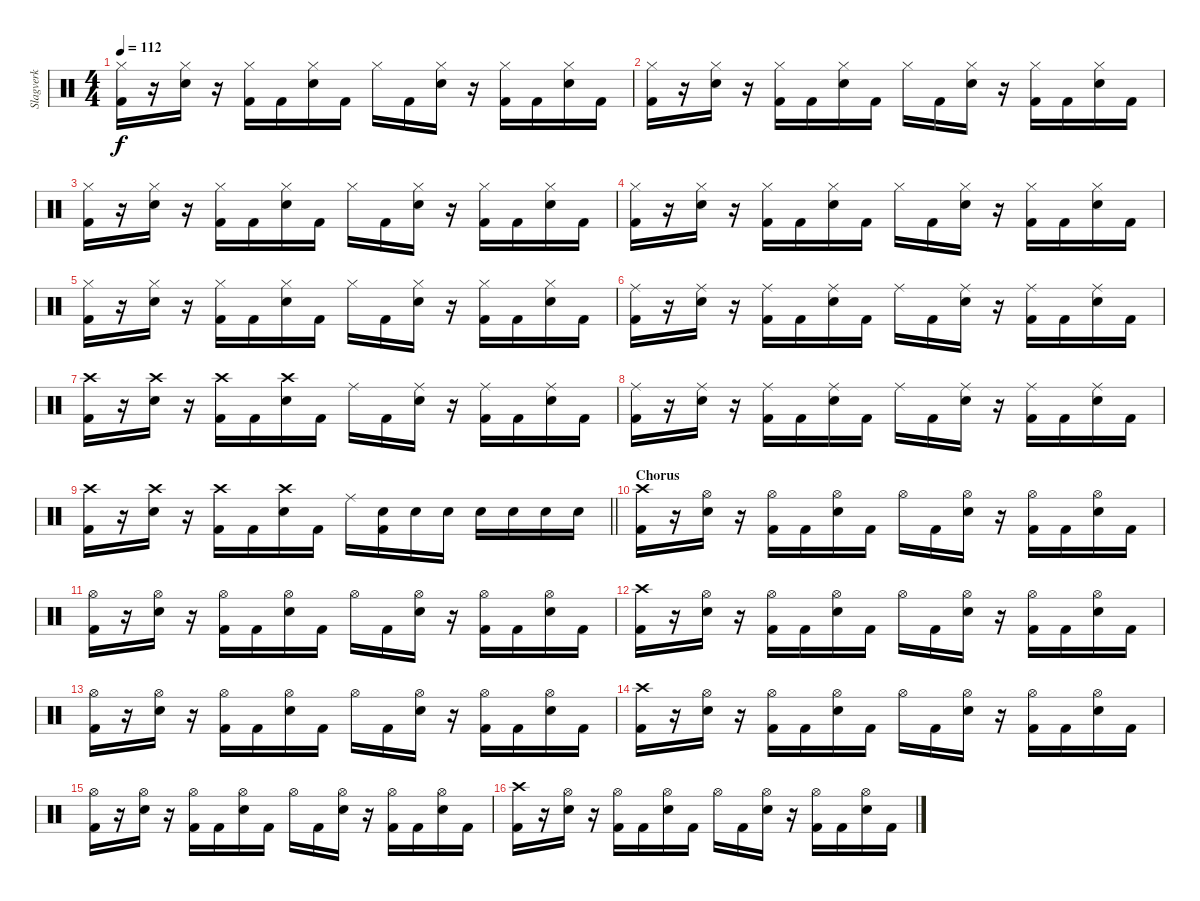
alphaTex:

\track ("Slagverk" "Slagverk") {instrument percussion}
\staff {score}
\articulation defaults
\ts (4 4)
\tempo 112
\clef neutral
\ks c
("Hi-Hat (closed)" "Kick (hit) 2").16{dy f} r.16 ("Hi-Hat (closed)" "Snare (hit) 2").16 r.16 ("Hi-Hat (closed)" "Kick (hit) 2").16 "Kick (hit) 2".16 ("Hi-Hat (closed)" "Snare (hit) 2").16 "Kick (hit) 2".16 "Hi-Hat (closed)".16 "Kick (hit) 2".16 ("Hi-Hat (closed)" "Snare (hit) 2").16 r.16 ("Hi-Hat (closed)" "Kick (hit) 2").16 "Kick (hit) 2".16 ("Hi-Hat (closed)" "Snare (hit) 2").16 "Kick (hit) 2".16 |
("Hi-Hat (closed)" "Kick (hit) 2").16 r.16 ("Hi-Hat (closed)" "Snare (hit) 2").16 r.16 ("Hi-Hat (closed)" "Kick (hit) 2").16 "Kick (hit) 2".16 ("Hi-Hat (closed)" "Snare (hit) 2").16 "Kick (hit) 2".16 "Hi-Hat (closed)".16 "Kick (hit) 2".16 ("Hi-Hat (closed)" "Snare (hit) 2").16 r.16 ("Hi-Hat (closed)" "Kick (hit) 2").16 "Kick (hit) 2".16 ("Hi-Hat (closed)" "Snare (hit) 2").16 "Kick (hit) 2".16 |
("Hi-Hat (closed)" "Kick (hit) 2").16 r.16 ("Hi-Hat (closed)" "Snare (hit) 2").16 r.16 ("Hi-Hat (closed)" "Kick (hit) 2").16 "Kick (hit) 2".16 ("Hi-Hat (closed)" "Snare (hit) 2").16 "Kick (hit) 2".16 "Hi-Hat (closed)".16 "Kick (hit) 2".16 ("Hi-Hat (closed)" "Snare (hit) 2").16 r.16 ("Hi-Hat (closed)" "Kick (hit) 2").16 "Kick (hit) 2".16 ("Hi-Hat (closed)" "Snare (hit) 2").16 "Kick (hit) 2".16 |
("Hi-Hat (closed)" "Kick (hit) 2").16 r.16 ("Hi-Hat (closed)" "Snare (hit) 2").16 r.16 ("Hi-Hat (closed)" "Kick (hit) 2").16 "Kick (hit) 2".16 ("Hi-Hat (closed)" "Snare (hit) 2").16 "Kick (hit) 2".16 "Hi-Hat (closed)".16 "Kick (hit) 2".16 ("Hi-Hat (closed)" "Snare (hit) 2").16 r.16 ("Hi-Hat (closed)" "Kick (hit) 2").16 "Kick (hit) 2".16 ("Hi-Hat (closed)" "Snare (hit) 2").16 "Kick (hit) 2".16 |
("Hi-Hat (closed)" "Kick (hit) 2").16 r.16 ("Hi-Hat (closed)" "Snare (hit) 2").16 r.16 ("Hi-Hat (closed)" "Kick (hit) 2").16 "Kick (hit) 2".16 ("Hi-Hat (closed)" "Snare (hit) 2").16 "Kick (hit) 2".16 "Hi-Hat (closed)".16 "Kick (hit) 2".16 ("Hi-Hat (closed)" "Snare (hit) 2").16 r.16 ("Hi-Hat (closed)" "Kick (hit) 2").16 "Kick (hit) 2".16 ("Hi-Hat (closed)" "Snare (hit) 2").16 "Kick (hit) 2".16 |
("Ride (middle)" "Kick (hit) 2").16 r.16 ("Ride (middle)" "Snare (hit) 2").16 r.16 ("Ride (middle)" "Kick (hit) 2").16 "Kick (hit) 2".16 ("Ride (middle)" "Snare (hit) 2").16 "Kick (hit) 2".16 "Ride (middle)".16 "Kick (hit) 2".16 ("Ride (middle)" "Snare (hit) 2").16 r.16 ("Ride (middle)" "Kick (hit) 2").16 "Kick (hit) 2".16 ("Ride (middle)" "Snare (hit) 2").16 "Kick (hit) 2".16 |
("Crash high (hit)" "Kick (hit) 2").16 r.16 ("Crash high (hit)" "Snare (hit) 2").16 r.16 ("Crash high (hit)" "Kick (hit) 2").16 "Kick (hit) 2".16 ("Crash high (hit)" "Snare (hit) 2").16 "Kick (hit) 2".16 "Ride (middle)".16 "Kick (hit) 2".16 ("Ride (middle)" "Snare (hit) 2").16 r.16 ("Ride (middle)" "Kick (hit) 2").16 "Kick (hit) 2".16 ("Ride (middle)" "Snare (hit) 2").16 "Kick (hit) 2".16 |
("Ride (middle)" "Kick (hit) 2").16 r.16 ("Ride (middle)" "Snare (hit) 2").16 r.16 ("Ride (middle)" "Kick (hit) 2").16 "Kick (hit) 2".16 ("Ride (middle)" "Snare (hit) 2").16 "Kick (hit) 2".16 "Ride (middle)".16 "Kick (hit) 2".16 ("Ride (middle)" "Snare (hit) 2").16 r.16 ("Ride (middle)" "Kick (hit) 2").16 "Kick (hit) 2".16 ("Ride (middle)" "Snare (hit) 2").16 "Kick (hit) 2".16 |
\barLineRight lightlight
("Crash high (hit)" "Kick (hit) 2").16 r.16 ("Crash high (hit)" "Snare (hit) 2").16 r.16 ("Crash high (hit)" "Kick (hit) 2").16 "Kick (hit) 2".16 ("Crash high (hit)" "Snare (hit) 2").16 "Kick (hit) 2".16 "Ride (middle)".16 ("Snare (hit) 2" "Kick (hit) 2").16 "Snare (hit) 2".16 "Snare (hit) 2".16 "Snare (hit) 2".16 "Snare (hit) 2".16 "Snare (hit) 2".16 "Snare (hit) 2".16 |
\section ("" "Chorus")
("Crash high (hit)" "Kick (hit) 2").16 r.16 ("Hi-Hat (open)" "Snare (hit) 2").16 r.16 ("Hi-Hat (open)" "Kick (hit) 2").16 "Kick (hit) 2".16 ("Hi-Hat (open)" "Snare (hit) 2").16 "Kick (hit) 2".16 "Hi-Hat (open)".16 "Kick (hit) 2".16 ("Hi-Hat (open)" "Snare (hit) 2").16 r.16 ("Hi-Hat (open)" "Kick (hit) 2").16 "Kick (hit) 2".16 ("Hi-Hat (open)" "Snare (hit) 2").16 "Kick (hit) 2".16 |
("Hi-Hat (open)" "Kick (hit) 2").16 r.16 ("Hi-Hat (open)" "Snare (hit) 2").16 r.16 ("Hi-Hat (open)" "Kick (hit) 2").16 "Kick (hit) 2".16 ("Hi-Hat (open)" "Snare (hit) 2").16 "Kick (hit) 2".16 "Hi-Hat (open)".16 "Kick (hit) 2".16 ("Hi-Hat (open)" "Snare (hit) 2").16 r.16 ("Hi-Hat (open)" "Kick (hit) 2").16 "Kick (hit) 2".16 ("Hi-Hat (open)" "Snare (hit) 2").16 "Kick (hit) 2".16 |
("Crash high (hit)" "Kick (hit) 2").16 r.16 ("Hi-Hat (open)" "Snare (hit) 2").16 r.16 ("Hi-Hat (open)" "Kick (hit) 2").16 "Kick (hit) 2".16 ("Hi-Hat (open)" "Snare (hit) 2").16 "Kick (hit) 2".16 "Hi-Hat (open)".16 "Kick (hit) 2".16 ("Hi-Hat (open)" "Snare (hit) 2").16 r.16 ("Hi-Hat (open)" "Kick (hit) 2").16 "Kick (hit) 2".16 ("Hi-Hat (open)" "Snare (hit) 2").16 "Kick (hit) 2".16 |
("Hi-Hat (open)" "Kick (hit) 2").16 r.16 ("Hi-Hat (open)" "Snare (hit) 2").16 r.16 ("Hi-Hat (open)" "Kick (hit) 2").16 "Kick (hit) 2".16 ("Hi-Hat (open)" "Snare (hit) 2").16 "Kick (hit) 2".16 "Hi-Hat (open)".16 "Kick (hit) 2".16 ("Hi-Hat (open)" "Snare (hit) 2").16 r.16 ("Hi-Hat (open)" "Kick (hit) 2").16 "Kick (hit) 2".16 ("Hi-Hat (open)" "Snare (hit) 2").16 "Kick (hit) 2".16 |
("Crash high (hit)" "Kick (hit) 2").16 r.16 ("Hi-Hat (open)" "Snare (hit) 2").16 r.16 ("Hi-Hat (open)" "Kick (hit) 2").16 "Kick (hit) 2".16 ("Hi-Hat (open)" "Snare (hit) 2").16 "Kick (hit) 2".16 "Hi-Hat (open)".16 "Kick (hit) 2".16 ("Hi-Hat (open)" "Snare (hit) 2").16 r.16 ("Hi-Hat (open)" "Kick (hit) 2").16 "Kick (hit) 2".16 ("Hi-Hat (open)" "Snare (hit) 2").16 "Kick (hit) 2".16 |
("Hi-Hat (open)" "Kick (hit) 2").16 r.16 ("Hi-Hat (open)" "Snare (hit) 2").16 r.16 ("Hi-Hat (open)" "Kick (hit) 2").16 "Kick (hit) 2".16 ("Hi-Hat (open)" "Snare (hit) 2").16 "Kick (hit) 2".16 "Hi-Hat (open)".16 "Kick (hit) 2".16 ("Hi-Hat (open)" "Snare (hit) 2").16 r.16 ("Hi-Hat (open)" "Kick (hit) 2").16 "Kick (hit) 2".16 ("Hi-Hat (open)" "Snare (hit) 2").16 "Kick (hit) 2".16 |
("Crash high (hit)" "Kick (hit) 2").16 r.16 ("Hi-Hat (open)" "Snare (hit) 2").16 r.16 ("Hi-Hat (open)" "Kick (hit) 2").16 "Kick (hit) 2".16 ("Hi-Hat (open)" "Snare (hit) 2").16 "Kick (hit) 2".16 "Hi-Hat (open)".16 "Kick (hit) 2".16 ("Hi-Hat (open)" "Snare (hit) 2").16 r.16 ("Hi-Hat (open)" "Kick (hit) 2").16 "Kick (hit) 2".16 ("Hi-Hat (open)" "Snare (hit) 2").16 "Kick (hit) 2".16
